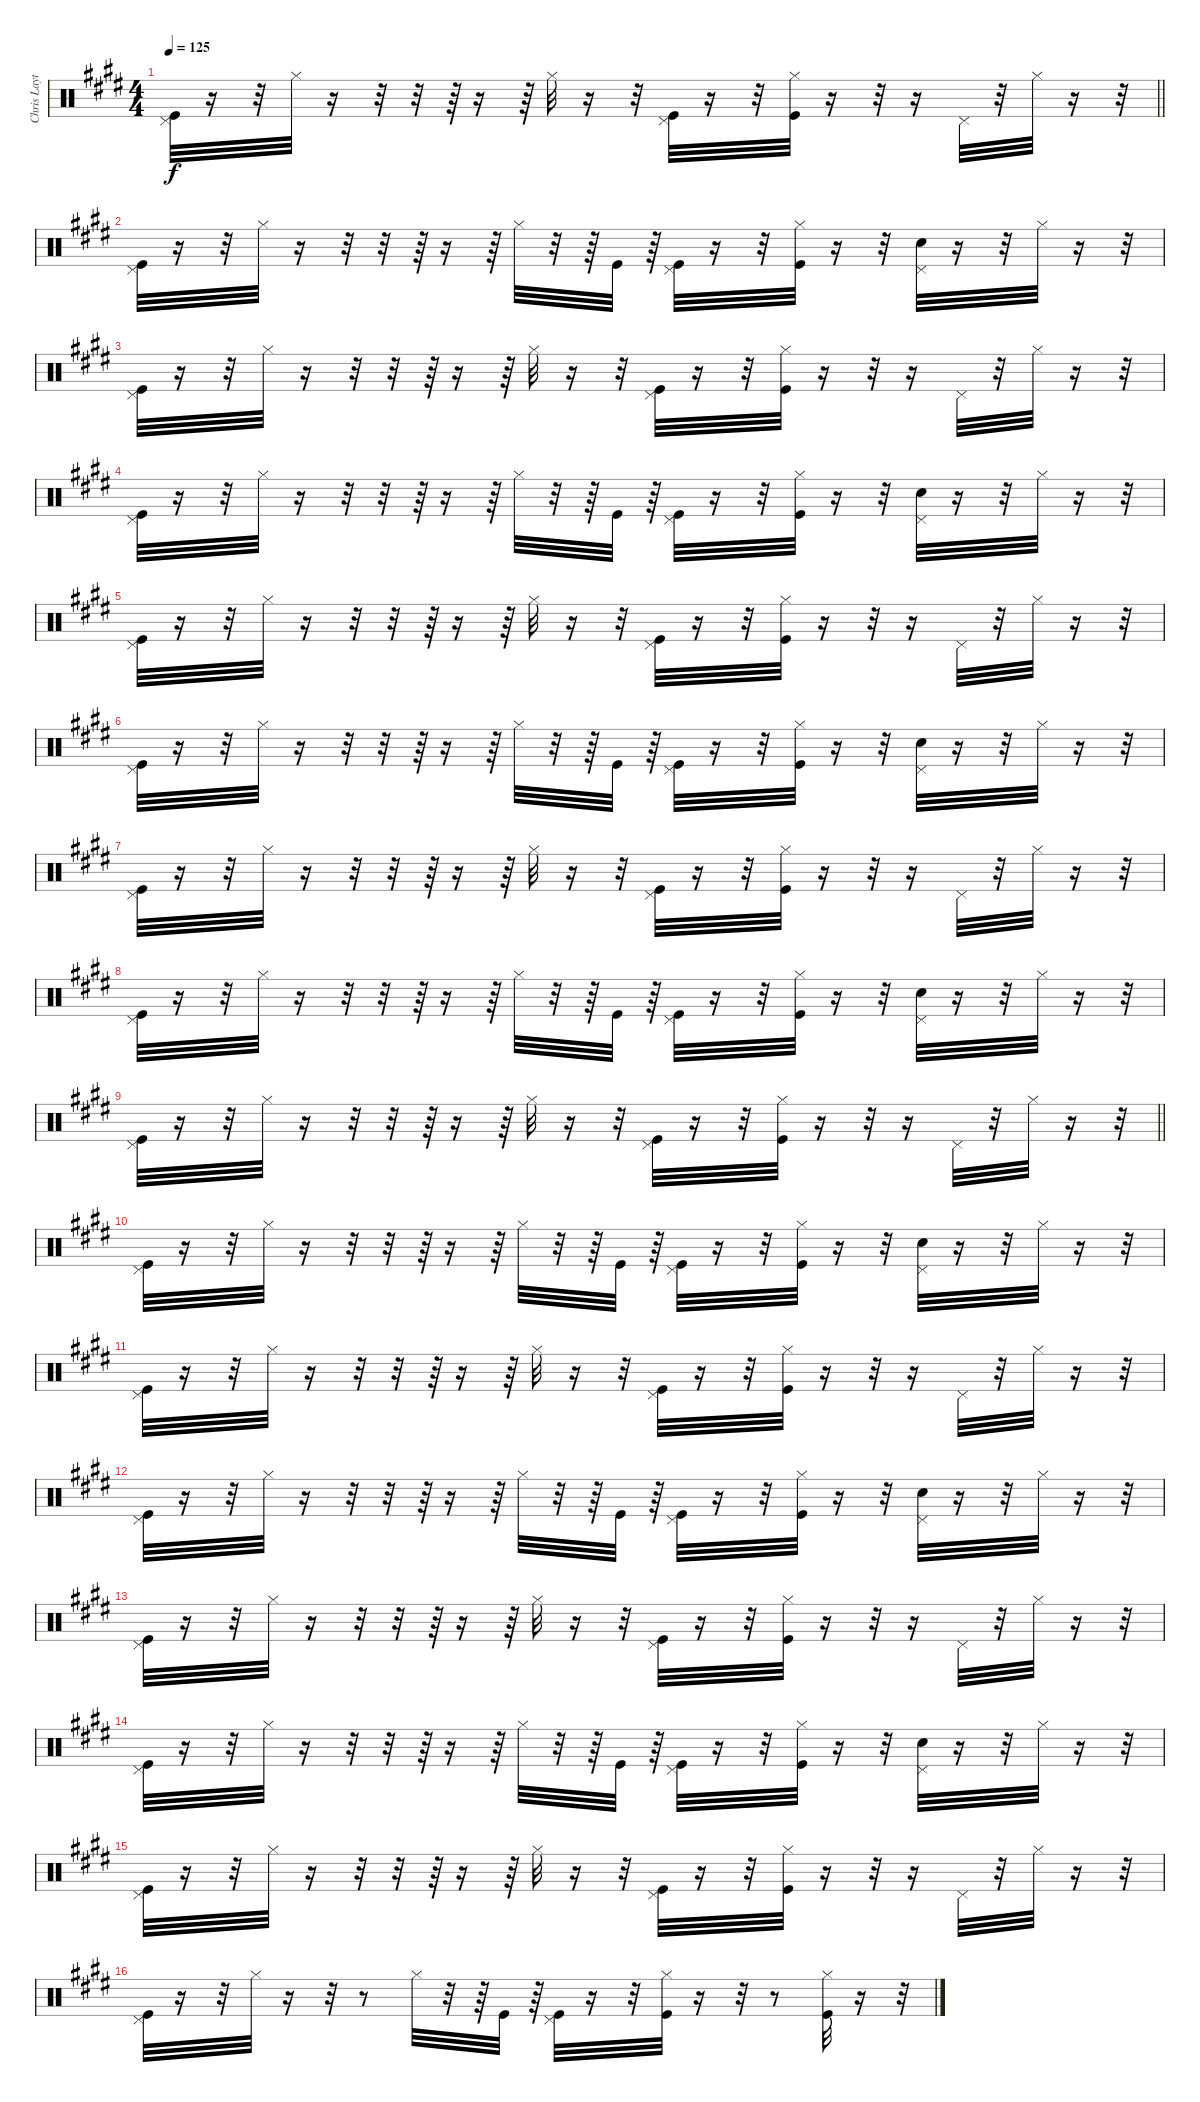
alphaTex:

\track ("Chris Layton" "Chris Layt") {instrument percussion}
\staff {score}
\articulation defaults
\ts (4 4)
\tempo 125
\clef neutral
\barLineRight lightlight
\ks e
("Pedal Hi-Hat (hit)" "Kick (hit)").32{dy f} r.16 r.32 "Hi-Hat (closed)".32 r.16 r.32 r.32 r.64 r.16 r.64 "Hi-Hat (closed)".32 r.16 r.32 ("Kick (hit)" "Pedal Hi-Hat (hit)").32 r.16 r.32 ("Kick (hit)" "Hi-Hat (closed)").32 r.16 r.32 r.16 "Pedal Hi-Hat (hit)".32 r.32 "Hi-Hat (closed)".32 r.16 r.32 |
("Pedal Hi-Hat (hit)" "Kick (hit)").32 r.16 r.32 "Hi-Hat (closed)".32 r.16 r.32 r.32 r.64 r.16 r.64 "Hi-Hat (closed)".32 r.32 r.64 "Kick (hit)".32 r.64 ("Kick (hit)" "Pedal Hi-Hat (hit)").32 r.16 r.32 ("Kick (hit)" "Hi-Hat (closed)").32 r.16 r.32 ("Snare (hit) 2" "Pedal Hi-Hat (hit)").32 r.16 r.32 "Hi-Hat (closed)".32 r.16 r.32 |
("Pedal Hi-Hat (hit)" "Kick (hit)").32 r.16 r.32 "Hi-Hat (closed)".32 r.16 r.32 r.32 r.64 r.16 r.64 "Hi-Hat (closed)".32 r.16 r.32 ("Kick (hit)" "Pedal Hi-Hat (hit)").32 r.16 r.32 ("Kick (hit)" "Hi-Hat (closed)").32 r.16 r.32 r.16 "Pedal Hi-Hat (hit)".32 r.32 "Hi-Hat (closed)".32 r.16 r.32 |
("Pedal Hi-Hat (hit)" "Kick (hit)").32 r.16 r.32 "Hi-Hat (closed)".32 r.16 r.32 r.32 r.64 r.16 r.64 "Hi-Hat (closed)".32 r.32 r.64 "Kick (hit)".32 r.64 ("Kick (hit)" "Pedal Hi-Hat (hit)").32 r.16 r.32 ("Kick (hit)" "Hi-Hat (closed)").32 r.16 r.32 ("Snare (hit) 2" "Pedal Hi-Hat (hit)").32 r.16 r.32 "Hi-Hat (closed)".32 r.16 r.32 |
("Pedal Hi-Hat (hit)" "Kick (hit)").32 r.16 r.32 "Hi-Hat (closed)".32 r.16 r.32 r.32 r.64 r.16 r.64 "Hi-Hat (closed)".32 r.16 r.32 ("Kick (hit)" "Pedal Hi-Hat (hit)").32 r.16 r.32 ("Kick (hit)" "Hi-Hat (closed)").32 r.16 r.32 r.16 "Pedal Hi-Hat (hit)".32 r.32 "Hi-Hat (closed)".32 r.16 r.32 |
("Pedal Hi-Hat (hit)" "Kick (hit)").32 r.16 r.32 "Hi-Hat (closed)".32 r.16 r.32 r.32 r.64 r.16 r.64 "Hi-Hat (closed)".32 r.32 r.64 "Kick (hit)".32 r.64 ("Kick (hit)" "Pedal Hi-Hat (hit)").32 r.16 r.32 ("Kick (hit)" "Hi-Hat (closed)").32 r.16 r.32 ("Snare (hit) 2" "Pedal Hi-Hat (hit)").32 r.16 r.32 "Hi-Hat (closed)".32 r.16 r.32 |
("Pedal Hi-Hat (hit)" "Kick (hit)").32 r.16 r.32 "Hi-Hat (closed)".32 r.16 r.32 r.32 r.64 r.16 r.64 "Hi-Hat (closed)".32 r.16 r.32 ("Kick (hit)" "Pedal Hi-Hat (hit)").32 r.16 r.32 ("Kick (hit)" "Hi-Hat (closed)").32 r.16 r.32 r.16 "Pedal Hi-Hat (hit)".32 r.32 "Hi-Hat (closed)".32 r.16 r.32 |
("Pedal Hi-Hat (hit)" "Kick (hit)").32 r.16 r.32 "Hi-Hat (closed)".32 r.16 r.32 r.32 r.64 r.16 r.64 "Hi-Hat (closed)".32 r.32 r.64 "Kick (hit)".32 r.64 ("Kick (hit)" "Pedal Hi-Hat (hit)").32 r.16 r.32 ("Kick (hit)" "Hi-Hat (closed)").32 r.16 r.32 ("Snare (hit) 2" "Pedal Hi-Hat (hit)").32 r.16 r.32 "Hi-Hat (closed)".32 r.16 r.32 |
\barLineRight lightlight
("Pedal Hi-Hat (hit)" "Kick (hit)").32 r.16 r.32 "Hi-Hat (closed)".32 r.16 r.32 r.32 r.64 r.16 r.64 "Hi-Hat (closed)".32 r.16 r.32 ("Kick (hit)" "Pedal Hi-Hat (hit)").32 r.16 r.32 ("Kick (hit)" "Hi-Hat (closed)").32 r.16 r.32 r.16 "Pedal Hi-Hat (hit)".32 r.32 "Hi-Hat (closed)".32 r.16 r.32 |
("Pedal Hi-Hat (hit)" "Kick (hit)").32 r.16 r.32 "Hi-Hat (closed)".32 r.16 r.32 r.32 r.64 r.16 r.64 "Hi-Hat (closed)".32 r.32 r.64 "Kick (hit)".32 r.64 ("Kick (hit)" "Pedal Hi-Hat (hit)").32 r.16 r.32 ("Kick (hit)" "Hi-Hat (closed)").32 r.16 r.32 ("Snare (hit) 2" "Pedal Hi-Hat (hit)").32 r.16 r.32 "Hi-Hat (closed)".32 r.16 r.32 |
("Pedal Hi-Hat (hit)" "Kick (hit)").32 r.16 r.32 "Hi-Hat (closed)".32 r.16 r.32 r.32 r.64 r.16 r.64 "Hi-Hat (closed)".32 r.16 r.32 ("Kick (hit)" "Pedal Hi-Hat (hit)").32 r.16 r.32 ("Kick (hit)" "Hi-Hat (closed)").32 r.16 r.32 r.16 "Pedal Hi-Hat (hit)".32 r.32 "Hi-Hat (closed)".32 r.16 r.32 |
("Pedal Hi-Hat (hit)" "Kick (hit)").32 r.16 r.32 "Hi-Hat (closed)".32 r.16 r.32 r.32 r.64 r.16 r.64 "Hi-Hat (closed)".32 r.32 r.64 "Kick (hit)".32 r.64 ("Kick (hit)" "Pedal Hi-Hat (hit)").32 r.16 r.32 ("Kick (hit)" "Hi-Hat (closed)").32 r.16 r.32 ("Snare (hit) 2" "Pedal Hi-Hat (hit)").32 r.16 r.32 "Hi-Hat (closed)".32 r.16 r.32 |
("Pedal Hi-Hat (hit)" "Kick (hit)").32 r.16 r.32 "Hi-Hat (closed)".32 r.16 r.32 r.32 r.64 r.16 r.64 "Hi-Hat (closed)".32 r.16 r.32 ("Kick (hit)" "Pedal Hi-Hat (hit)").32 r.16 r.32 ("Kick (hit)" "Hi-Hat (closed)").32 r.16 r.32 r.16 "Pedal Hi-Hat (hit)".32 r.32 "Hi-Hat (closed)".32 r.16 r.32 |
("Pedal Hi-Hat (hit)" "Kick (hit)").32 r.16 r.32 "Hi-Hat (closed)".32 r.16 r.32 r.32 r.64 r.16 r.64 "Hi-Hat (closed)".32 r.32 r.64 "Kick (hit)".32 r.64 ("Kick (hit)" "Pedal Hi-Hat (hit)").32 r.16 r.32 ("Kick (hit)" "Hi-Hat (closed)").32 r.16 r.32 ("Snare (hit) 2" "Pedal Hi-Hat (hit)").32 r.16 r.32 "Hi-Hat (closed)".32 r.16 r.32 |
("Pedal Hi-Hat (hit)" "Kick (hit)").32 r.16 r.32 "Hi-Hat (closed)".32 r.16 r.32 r.32 r.64 r.16 r.64 "Hi-Hat (closed)".32 r.16 r.32 ("Kick (hit)" "Pedal Hi-Hat (hit)").32 r.16 r.32 ("Kick (hit)" "Hi-Hat (closed)").32 r.16 r.32 r.16 "Pedal Hi-Hat (hit)".32 r.32 "Hi-Hat (closed)".32 r.16 r.32 |
("Pedal Hi-Hat (hit)" "Kick (hit)").32 r.16 r.32 "Hi-Hat (closed)".32 r.16 r.32 r.8 "Hi-Hat (closed)".32 r.32 r.64 "Kick (hit)".32 r.64 ("Kick (hit)" "Pedal Hi-Hat (hit)").32 r.16 r.32 ("Kick (hit)" "Hi-Hat (closed)").32 r.16 r.32 r.8 ("Kick (hit)" "Hi-Hat (closed)").32 r.16 r.32
